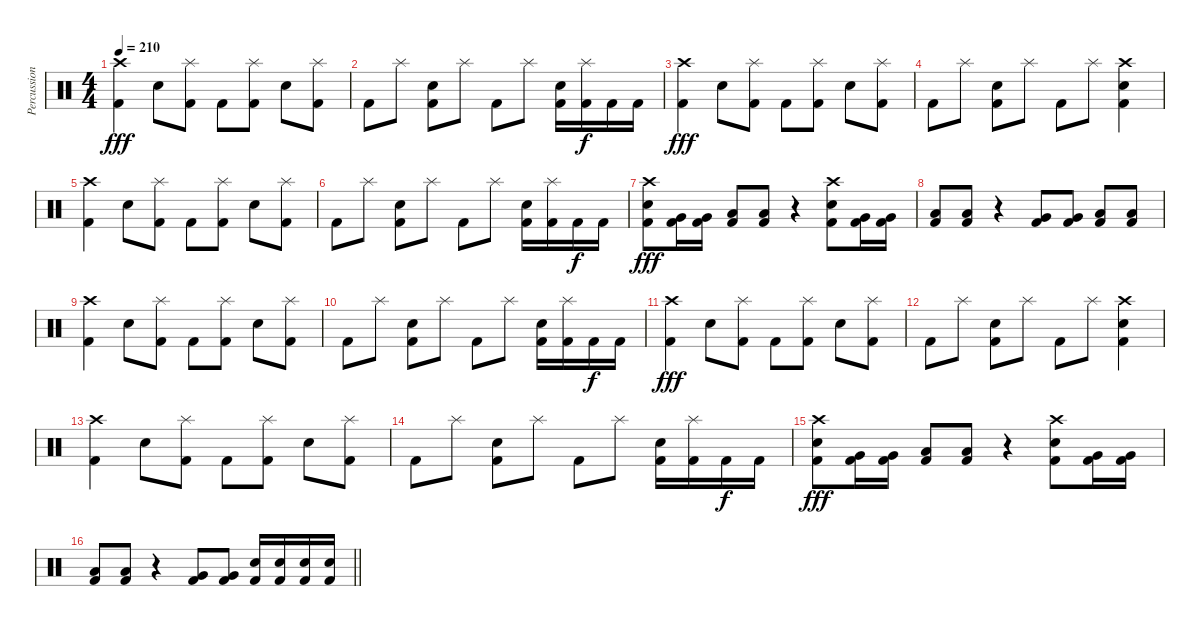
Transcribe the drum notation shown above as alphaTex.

\track ("Percussion" "Percussion") {instrument percussion}
\staff {score}
\articulation defaults
\ts (4 4)
\tempo 210
\clef neutral
\ks c
("Crash high (hit)" "Kick (hit) 2").4{dy fff} "Electric Snare (hit)".8 ("Splash (hit)" "Kick (hit) 2").8 "Kick (hit) 2".8 ("Splash (hit)" "Kick (hit) 2").8 "Electric Snare (hit)".8 ("Splash (hit)" "Kick (hit) 2").8 |
"Kick (hit) 2".8 "Splash (hit)".8 ("Electric Snare (hit)" "Kick (hit) 2").8 "Splash (hit)".8 "Kick (hit) 2".8 "Splash (hit)".8 ("Electric Snare (hit)" "Kick (hit) 2").16 ("Splash (hit)" "Kick (hit) 2").16{dy f} "Kick (hit) 2".16 "Kick (hit) 2".16 |
("Crash high (hit)" "Kick (hit) 2").4{dy fff} "Electric Snare (hit)".8 ("Splash (hit)" "Kick (hit) 2").8 "Kick (hit) 2".8 ("Splash (hit)" "Kick (hit) 2").8 "Electric Snare (hit)".8 ("Splash (hit)" "Kick (hit) 2").8 |
"Kick (hit) 2".8 "Splash (hit)".8 ("Electric Snare (hit)" "Kick (hit) 2").8 "Splash (hit)".8 "Kick (hit) 2".8 "Splash (hit)".8 ("Crash high (hit)" "Electric Snare (hit)" "Kick (hit) 2").4 |
("Crash high (hit)" "Kick (hit) 2").4 "Electric Snare (hit)".8 ("Splash (hit)" "Kick (hit) 2").8 "Kick (hit) 2".8 ("Splash (hit)" "Kick (hit) 2").8 "Electric Snare (hit)".8 ("Splash (hit)" "Kick (hit) 2").8 |
"Kick (hit) 2".8 "Splash (hit)".8 ("Electric Snare (hit)" "Kick (hit) 2").8 "Splash (hit)".8 "Kick (hit) 2".8 "Splash (hit)".8 ("Electric Snare (hit)" "Kick (hit) 2").16 ("Splash (hit)" "Kick (hit) 2").16 "Kick (hit) 2".16{dy f} "Kick (hit) 2".16 |
("Crash high (hit)" "Electric Snare (hit)" "Kick (hit) 2").8{dy fff} ("Very Low Tom (hit)" "Kick (hit) 2").16 ("Very Low Tom (hit)" "Kick (hit) 2").16 ("Low Floor Tom (hit)" "Kick (hit) 2").8 ("Low Floor Tom (hit)" "Kick (hit) 2").8 r.4 ("Crash high (hit)" "Electric Snare (hit)" "Kick (hit) 2").8 ("Very Low Tom (hit)" "Kick (hit) 2").16 ("Very Low Tom (hit)" "Kick (hit) 2").16 |
("Low Floor Tom (hit)" "Kick (hit) 2").8 ("Low Floor Tom (hit)" "Kick (hit) 2").8 r.4 ("Very Low Tom (hit)" "Kick (hit) 2").8 ("Very Low Tom (hit)" "Kick (hit) 2").8 ("Low Floor Tom (hit)" "Kick (hit) 2").8 ("Low Floor Tom (hit)" "Kick (hit) 2").8 |
("Crash high (hit)" "Kick (hit) 2").4 "Electric Snare (hit)".8 ("Splash (hit)" "Kick (hit) 2").8 "Kick (hit) 2".8 ("Splash (hit)" "Kick (hit) 2").8 "Electric Snare (hit)".8 ("Splash (hit)" "Kick (hit) 2").8 |
"Kick (hit) 2".8 "Splash (hit)".8 ("Electric Snare (hit)" "Kick (hit) 2").8 "Splash (hit)".8 "Kick (hit) 2".8 "Splash (hit)".8 ("Electric Snare (hit)" "Kick (hit) 2").16 ("Splash (hit)" "Kick (hit) 2").16 "Kick (hit) 2".16{dy f} "Kick (hit) 2".16 |
("Crash high (hit)" "Kick (hit) 2").4{dy fff} "Electric Snare (hit)".8 ("Splash (hit)" "Kick (hit) 2").8 "Kick (hit) 2".8 ("Splash (hit)" "Kick (hit) 2").8 "Electric Snare (hit)".8 ("Splash (hit)" "Kick (hit) 2").8 |
"Kick (hit) 2".8 "Splash (hit)".8 ("Electric Snare (hit)" "Kick (hit) 2").8 "Splash (hit)".8 "Kick (hit) 2".8 "Splash (hit)".8 ("Crash high (hit)" "Electric Snare (hit)" "Kick (hit) 2").4 |
("Crash high (hit)" "Kick (hit) 2").4 "Electric Snare (hit)".8 ("Splash (hit)" "Kick (hit) 2").8 "Kick (hit) 2".8 ("Splash (hit)" "Kick (hit) 2").8 "Electric Snare (hit)".8 ("Splash (hit)" "Kick (hit) 2").8 |
"Kick (hit) 2".8 "Splash (hit)".8 ("Electric Snare (hit)" "Kick (hit) 2").8 "Splash (hit)".8 "Kick (hit) 2".8 "Splash (hit)".8 ("Electric Snare (hit)" "Kick (hit) 2").16 ("Splash (hit)" "Kick (hit) 2").16 "Kick (hit) 2".16{dy f} "Kick (hit) 2".16 |
("Crash high (hit)" "Electric Snare (hit)" "Kick (hit) 2").8{dy fff} ("Very Low Tom (hit)" "Kick (hit) 2").16 ("Very Low Tom (hit)" "Kick (hit) 2").16 ("Low Floor Tom (hit)" "Kick (hit) 2").8 ("Low Floor Tom (hit)" "Kick (hit) 2").8 r.4 ("Crash high (hit)" "Electric Snare (hit)" "Kick (hit) 2").8 ("Very Low Tom (hit)" "Kick (hit) 2").16 ("Very Low Tom (hit)" "Kick (hit) 2").16 |
\barLineRight lightlight
("Low Floor Tom (hit)" "Kick (hit) 2").8 ("Low Floor Tom (hit)" "Kick (hit) 2").8 r.4 ("Very Low Tom (hit)" "Kick (hit) 2").8 ("Very Low Tom (hit)" "Kick (hit) 2").8 ("Electric Snare (hit)" "Kick (hit) 2").16 ("Electric Snare (hit)" "Kick (hit) 2").16 ("Electric Snare (hit)" "Kick (hit) 2").16 ("Electric Snare (hit)" "Kick (hit) 2").16
